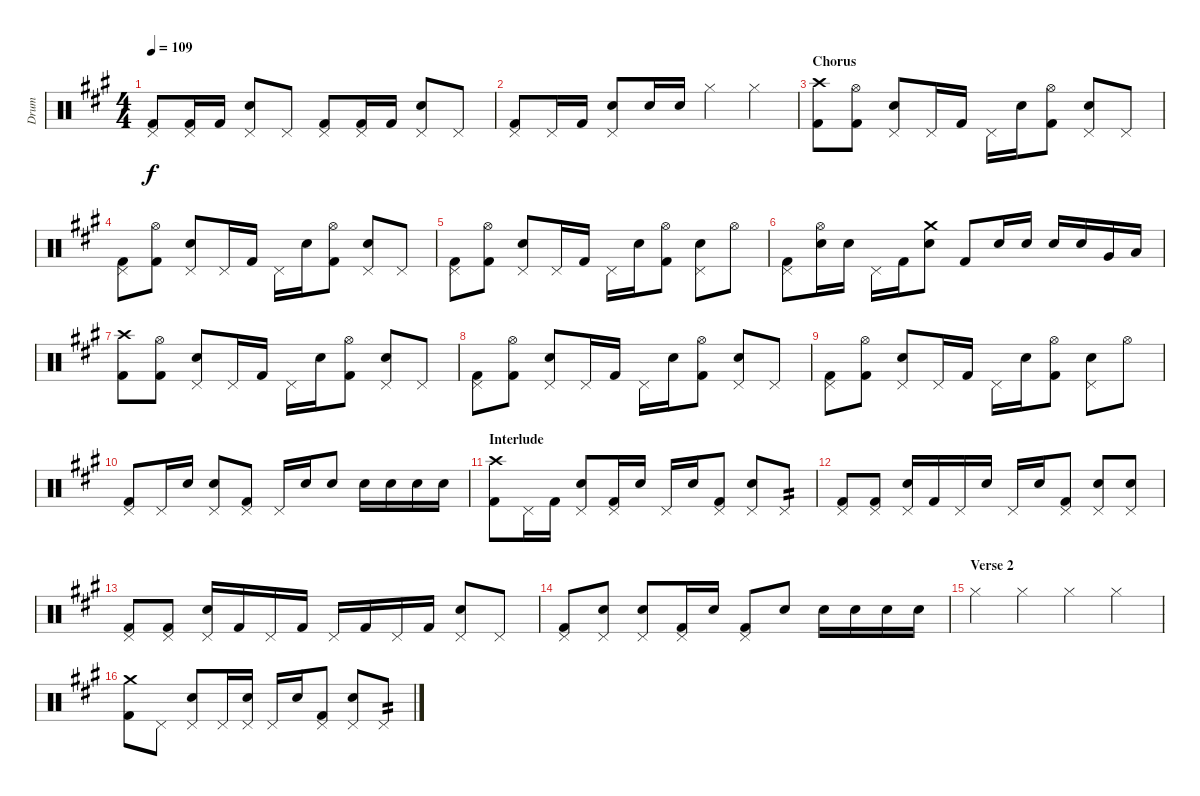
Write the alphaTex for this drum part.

\track ("Drum" "Drum") {instrument percussion}
\staff {score}
\articulation defaults
\ts (4 4)
\tempo 109
\clef neutral
\ks f#minor
("Pedal Hi-Hat (hit)" "Kick (hit) 2").8{dy f} ("Pedal Hi-Hat (hit)" "Kick (hit) 2").16 "Kick (hit) 2".16 ("Pedal Hi-Hat (hit)" "Electric Snare (hit)").8 "Pedal Hi-Hat (hit)".8 ("Pedal Hi-Hat (hit)" "Kick (hit) 2").8 ("Pedal Hi-Hat (hit)" "Kick (hit) 2").16 "Kick (hit) 2".16 ("Pedal Hi-Hat (hit)" "Electric Snare (hit)").8 "Pedal Hi-Hat (hit)".8 |
("Pedal Hi-Hat (hit)" "Kick (hit) 2").8 "Pedal Hi-Hat (hit)".16 "Kick (hit) 2".16 ("Pedal Hi-Hat (hit)" "Electric Snare (hit)").8 "Electric Snare (hit)".16 "Electric Snare (hit)".16 "Hi-Hat (closed)".4 "Hi-Hat (closed)".4 |
\section ("" "Chorus")
("Crash high (hit)" "Kick (hit) 2").8 ("Hi-Hat (open)" "Kick (hit) 2").8 ("Pedal Hi-Hat (hit)" "Electric Snare (hit)").8 "Pedal Hi-Hat (hit)".16 "Kick (hit) 2".16 "Pedal Hi-Hat (hit)".16 "Electric Snare (hit)".16 ("Hi-Hat (open)" "Kick (hit) 2").8 ("Pedal Hi-Hat (hit)" "Electric Snare (hit)").8 "Pedal Hi-Hat (hit)".8 |
("Pedal Hi-Hat (hit)" "Kick (hit) 2").8 ("Hi-Hat (open)" "Kick (hit) 2").8 ("Pedal Hi-Hat (hit)" "Electric Snare (hit)").8 "Pedal Hi-Hat (hit)".16 "Kick (hit) 2".16 "Pedal Hi-Hat (hit)".16 "Electric Snare (hit)".16 ("Hi-Hat (open)" "Kick (hit) 2").8 ("Pedal Hi-Hat (hit)" "Electric Snare (hit)").8 "Pedal Hi-Hat (hit)".8 |
("Pedal Hi-Hat (hit)" "Kick (hit) 2").8 ("Hi-Hat (open)" "Kick (hit) 2").8 ("Pedal Hi-Hat (hit)" "Electric Snare (hit)").8 "Pedal Hi-Hat (hit)".16 "Kick (hit) 2".16 "Pedal Hi-Hat (hit)".16 "Electric Snare (hit)".16 ("Hi-Hat (open)" "Kick (hit) 2").8 ("Pedal Hi-Hat (hit)" "Electric Snare (hit)").8 "Hi-Hat (open)".8 |
("Pedal Hi-Hat (hit)" "Kick (hit) 2").8 ("Hi-Hat (open)" "Electric Snare (hit)").16 "Electric Snare (hit)".16 "Pedal Hi-Hat (hit)".16 "Kick (hit) 2".16 ("Crash medium (hit)" "Electric Snare (hit)").8 "Kick (hit) 2".8 "Electric Snare (hit)".16 "Electric Snare (hit)".16 "Electric Snare (hit)".16 "Electric Snare (hit)".16 "Very Low Tom (hit)".16 "Low Floor Tom (hit)".16 |
("Crash high (hit)" "Kick (hit) 2").8 ("Hi-Hat (open)" "Kick (hit) 2").8 ("Pedal Hi-Hat (hit)" "Electric Snare (hit)").8 "Pedal Hi-Hat (hit)".16 "Kick (hit) 2".16 "Pedal Hi-Hat (hit)".16 "Electric Snare (hit)".16 ("Hi-Hat (open)" "Kick (hit) 2").8 ("Pedal Hi-Hat (hit)" "Electric Snare (hit)").8 "Pedal Hi-Hat (hit)".8 |
("Pedal Hi-Hat (hit)" "Kick (hit) 2").8 ("Hi-Hat (open)" "Kick (hit) 2").8 ("Pedal Hi-Hat (hit)" "Electric Snare (hit)").8 "Pedal Hi-Hat (hit)".16 "Kick (hit) 2".16 "Pedal Hi-Hat (hit)".16 "Electric Snare (hit)".16 ("Hi-Hat (open)" "Kick (hit) 2").8 ("Pedal Hi-Hat (hit)" "Electric Snare (hit)").8 "Pedal Hi-Hat (hit)".8 |
("Pedal Hi-Hat (hit)" "Kick (hit) 2").8 ("Hi-Hat (open)" "Kick (hit) 2").8 ("Pedal Hi-Hat (hit)" "Electric Snare (hit)").8 "Pedal Hi-Hat (hit)".16 "Kick (hit) 2".16 "Pedal Hi-Hat (hit)".16 "Electric Snare (hit)".16 ("Hi-Hat (open)" "Kick (hit) 2").8 ("Pedal Hi-Hat (hit)" "Electric Snare (hit)").8 "Hi-Hat (open)".8 |
("Pedal Hi-Hat (hit)" "Kick (hit) 2").8 "Pedal Hi-Hat (hit)".16 "Electric Snare (hit)".16 ("Pedal Hi-Hat (hit)" "Electric Snare (hit)").8 ("Pedal Hi-Hat (hit)" "Kick (hit) 2").8 "Pedal Hi-Hat (hit)".16 "Electric Snare (hit)".16 "Electric Snare (hit)".8 "Electric Snare (hit)".16 "Electric Snare (hit)".16 "Electric Snare (hit)".16 "Electric Snare (hit)".16 |
\section ("" "Interlude")
("Crash high (hit)" "Kick (hit) 2").8 "Pedal Hi-Hat (hit)".16 "Kick (hit) 2".16 ("Pedal Hi-Hat (hit)" "Electric Snare (hit)").8 ("Pedal Hi-Hat (hit)" "Kick (hit) 2").16 "Electric Snare (hit)".16 "Pedal Hi-Hat (hit)".16 "Electric Snare (hit)".16 ("Pedal Hi-Hat (hit)" "Kick (hit) 2").8 ("Pedal Hi-Hat (hit)" "Electric Snare (hit)").8 "Pedal Hi-Hat (hit)".8{tp 2} |
("Pedal Hi-Hat (hit)" "Kick (hit) 2").8 ("Pedal Hi-Hat (hit)" "Kick (hit) 2").8 ("Pedal Hi-Hat (hit)" "Electric Snare (hit)").16 "Kick (hit) 2".16 "Pedal Hi-Hat (hit)".16 "Electric Snare (hit)".16 "Pedal Hi-Hat (hit)".16 "Electric Snare (hit)".16 ("Pedal Hi-Hat (hit)" "Kick (hit) 2").8 ("Pedal Hi-Hat (hit)" "Electric Snare (hit)").8 ("Pedal Hi-Hat (hit)" "Electric Snare (hit)").8 |
("Pedal Hi-Hat (hit)" "Kick (hit) 2").8 ("Pedal Hi-Hat (hit)" "Kick (hit) 2").8 ("Pedal Hi-Hat (hit)" "Electric Snare (hit)").16 "Kick (hit) 2".16 "Pedal Hi-Hat (hit)".16 "Kick (hit) 2".16 "Pedal Hi-Hat (hit)".16 "Kick (hit) 2".16 "Pedal Hi-Hat (hit)".16 "Kick (hit) 2".16 ("Pedal Hi-Hat (hit)" "Electric Snare (hit)").8 "Pedal Hi-Hat (hit)".8 |
("Pedal Hi-Hat (hit)" "Kick (hit) 2").8 ("Pedal Hi-Hat (hit)" "Electric Snare (hit)").8 ("Pedal Hi-Hat (hit)" "Electric Snare (hit)").8 ("Pedal Hi-Hat (hit)" "Kick (hit) 2").16 "Electric Snare (hit)".16 ("Pedal Hi-Hat (hit)" "Kick (hit) 2").8 "Electric Snare (hit)".8 "Electric Snare (hit)".16 "Electric Snare (hit)".16 "Electric Snare (hit)".16 "Electric Snare (hit)".16 |
\section ("" "Verse 2")
"Hi-Hat (closed)".4 "Hi-Hat (closed)".4 "Hi-Hat (closed)".4 "Hi-Hat (closed)".4 |
("Crash medium (hit)" "Kick (hit) 2").8 "Pedal Hi-Hat (hit)".8 ("Pedal Hi-Hat (hit)" "Electric Snare (hit)").8 "Pedal Hi-Hat (hit)".16 ("Pedal Hi-Hat (hit)" "Electric Snare (hit)").16 "Pedal Hi-Hat (hit)".16 "Electric Snare (hit)".16 ("Pedal Hi-Hat (hit)" "Kick (hit) 2").8 ("Pedal Hi-Hat (hit)" "Electric Snare (hit)").8 "Pedal Hi-Hat (hit)".8{tp 2}
